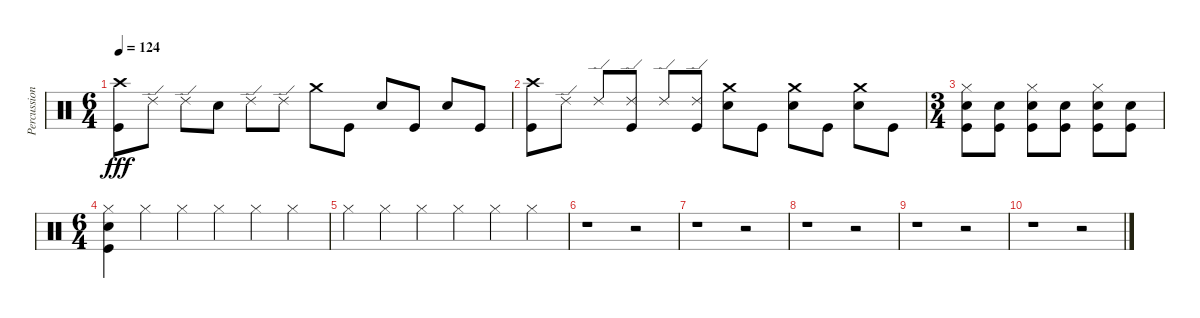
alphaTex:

\track ("Percussion" "Percussion") {instrument percussion}
\staff {score}
\articulation defaults
\ts (6 4)
\tempo 124
\clef neutral
\ks c
("Crash high (hit)" "Kick (hit)").8{dy fff} "Ride (edge) 2".8 "Ride (edge) 2".8 "Snare (hit) 2".8 "Ride (edge) 2".8 "Ride (edge) 2".8 "Crash medium (hit)".8 "Kick (hit)".8 "Snare (hit) 2".8 "Kick (hit)".8 "Snare (hit) 2".8 "Kick (hit)".8 |
("Crash high (hit)" "Kick (hit)").8 "Ride (edge) 2".8 "Ride (edge) 2".8 ("Ride (edge) 2" "Kick (hit)").8 "Ride (edge) 2".8 ("Ride (edge) 2" "Kick (hit)").8 ("Crash medium (hit)" "Snare (hit) 2").8 "Kick (hit)".8 ("Crash medium (hit)" "Snare (hit) 2").8 "Kick (hit)".8 ("Crash medium (hit)" "Snare (hit) 2").8 "Kick (hit)".8 |
\ts (3 4)
("Hi-Hat (closed)" "Snare (hit) 2" "Kick (hit)").8 ("Snare (hit) 2" "Kick (hit)").8 ("Hi-Hat (closed)" "Snare (hit) 2" "Kick (hit)").8 ("Snare (hit) 2" "Kick (hit)").8 ("Hi-Hat (closed)" "Snare (hit) 2" "Kick (hit)").8 ("Snare (hit) 2" "Kick (hit)").8 |
\ts (6 4)
("Hi-Hat (closed)" "Snare (hit) 2" "Kick (hit)").4 "Hi-Hat (closed)".4 "Hi-Hat (closed)".4 "Hi-Hat (closed)".4 "Hi-Hat (closed)".4 "Hi-Hat (closed)".4 |
"Hi-Hat (closed)".4 "Hi-Hat (closed)".4 "Hi-Hat (closed)".4 "Hi-Hat (closed)".4 "Hi-Hat (closed)".4 "Hi-Hat (closed)".4 |
r.1 r.2 |
r.1 r.2 |
r.1 r.2 |
r.1 r.2 |
r.1 r.2
